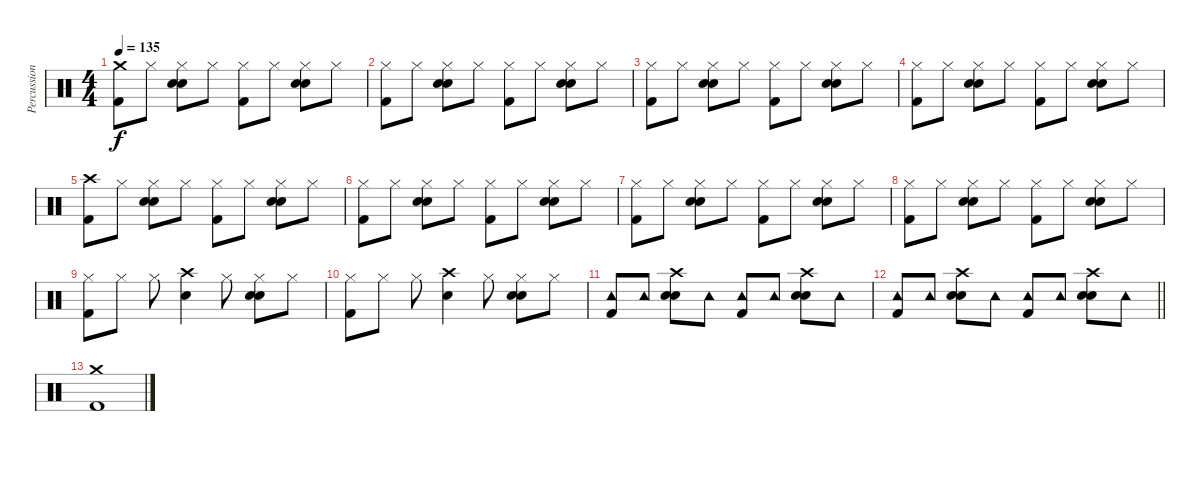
\track ("Percussion" "Percussion") {instrument percussion}
\staff {score}
\articulation defaults
\ts (4 4)
\tempo 135
\clef neutral
\ks c
("Crash medium (hit)" "Kick (hit) 2").8{dy f} "Hi-Hat (closed)".8 ("Hi-Hat (closed)" "Snare (hit) 2" "Hand Clap (hit)").8 "Hi-Hat (closed)".8 ("Hi-Hat (closed)" "Kick (hit) 2").8 "Hi-Hat (closed)".8 ("Hi-Hat (closed)" "Snare (hit) 2" "Hand Clap (hit)").8 "Hi-Hat (closed)".8 |
("Hi-Hat (closed)" "Kick (hit) 2").8 "Hi-Hat (closed)".8 ("Hi-Hat (closed)" "Snare (hit) 2" "Hand Clap (hit)").8 "Hi-Hat (closed)".8 ("Hi-Hat (closed)" "Kick (hit) 2").8 "Hi-Hat (closed)".8 ("Hi-Hat (closed)" "Snare (hit) 2" "Hand Clap (hit)").8 "Hi-Hat (closed)".8 |
("Hi-Hat (closed)" "Kick (hit) 2").8 "Hi-Hat (closed)".8 ("Hi-Hat (closed)" "Snare (hit) 2" "Hand Clap (hit)").8 "Hi-Hat (closed)".8 ("Hi-Hat (closed)" "Kick (hit) 2").8 "Hi-Hat (closed)".8 ("Hi-Hat (closed)" "Snare (hit) 2" "Hand Clap (hit)").8 "Hi-Hat (closed)".8 |
("Hi-Hat (closed)" "Kick (hit) 2").8 "Hi-Hat (closed)".8 ("Hi-Hat (closed)" "Snare (hit) 2" "Hand Clap (hit)").8 "Hi-Hat (closed)".8 ("Hi-Hat (closed)" "Kick (hit) 2").8 "Hi-Hat (closed)".8 ("Hi-Hat (closed)" "Snare (hit) 2" "Hand Clap (hit)").8 "Hi-Hat (closed)".8 |
("Crash high (hit)" "Kick (hit) 2").8 "Hi-Hat (closed)".8 ("Hi-Hat (closed)" "Snare (hit) 2" "Hand Clap (hit)").8 "Hi-Hat (closed)".8 ("Hi-Hat (closed)" "Kick (hit) 2").8 "Hi-Hat (closed)".8 ("Hi-Hat (closed)" "Snare (hit) 2" "Hand Clap (hit)").8 "Hi-Hat (closed)".8 |
("Hi-Hat (closed)" "Kick (hit) 2").8 "Hi-Hat (closed)".8 ("Hi-Hat (closed)" "Snare (hit) 2" "Hand Clap (hit)").8 "Hi-Hat (closed)".8 ("Hi-Hat (closed)" "Kick (hit) 2").8 "Hi-Hat (closed)".8 ("Hi-Hat (closed)" "Snare (hit) 2" "Hand Clap (hit)").8 "Hi-Hat (closed)".8 |
("Hi-Hat (closed)" "Kick (hit) 2").8 "Hi-Hat (closed)".8 ("Hi-Hat (closed)" "Snare (hit) 2" "Hand Clap (hit)").8 "Hi-Hat (closed)".8 ("Hi-Hat (closed)" "Kick (hit) 2").8 "Hi-Hat (closed)".8 ("Hi-Hat (closed)" "Snare (hit) 2" "Hand Clap (hit)").8 "Hi-Hat (closed)".8 |
("Hi-Hat (closed)" "Kick (hit) 2").8 "Hi-Hat (closed)".8 ("Hi-Hat (closed)" "Snare (hit) 2" "Hand Clap (hit)").8 "Hi-Hat (closed)".8 ("Hi-Hat (closed)" "Kick (hit) 2").8 "Hi-Hat (closed)".8 ("Hi-Hat (closed)" "Snare (hit) 2" "Hand Clap (hit)").8 "Hi-Hat (closed)".8 |
("Hi-Hat (closed)" "Kick (hit) 2").8 "Hi-Hat (closed)".8 "Hi-Hat (closed)".8 ("Crash high (hit)" "Snare (hit) 2").4 "Hi-Hat (closed)".8 ("Hi-Hat (closed)" "Snare (hit) 2" "Hand Clap (hit)").8 "Hi-Hat (closed)".8 |
("Hi-Hat (closed)" "Kick (hit) 2").8 "Hi-Hat (closed)".8 "Hi-Hat (closed)".8 ("Crash high (hit)" "Snare (hit) 2").4 "Hi-Hat (closed)".8 ("Hi-Hat (closed)" "Snare (hit) 2" "Hand Clap (hit)").8 "Hi-Hat (closed)".8 |
("Tambourine (hit)" "Kick (hit) 2").8 "Tambourine (hit)".8 ("Crash high (hit)" "Snare (hit) 2" "Hand Clap (hit)").8 "Tambourine (hit)".8 ("Tambourine (hit)" "Kick (hit) 2").8 "Tambourine (hit)".8 ("Crash high (hit)" "Snare (hit) 2" "Hand Clap (hit)").8 "Tambourine (hit)".8 |
\barLineRight lightlight
("Tambourine (hit)" "Kick (hit) 2").8 "Tambourine (hit)".8 ("Crash high (hit)" "Snare (hit) 2" "Hand Clap (hit)").8 "Tambourine (hit)".8 ("Tambourine (hit)" "Kick (hit) 2").8 "Tambourine (hit)".8 ("Crash high (hit)" "Snare (hit) 2" "Hand Clap (hit)").8 "Tambourine (hit)".8 |
("Crash medium (hit)" "Kick (hit) 2").1
